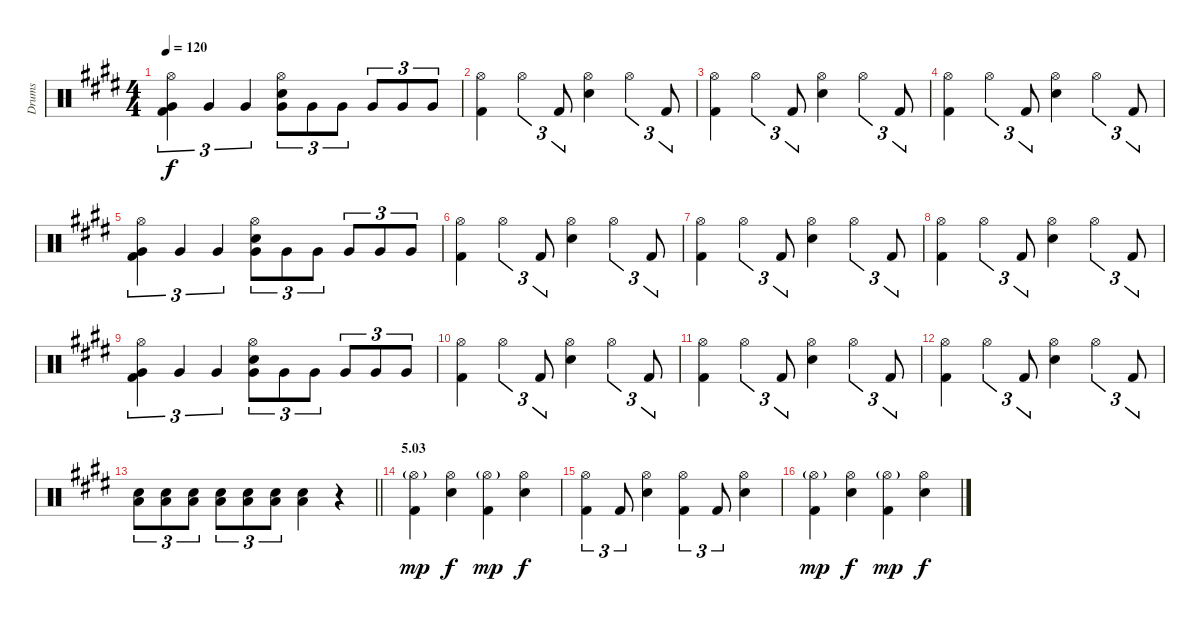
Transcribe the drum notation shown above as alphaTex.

\track ("Drums" "Drums") {instrument percussion}
\staff {score}
\articulation defaults
\ts (4 4)
\tempo 120
\clef neutral
\ks c#minor
("Hi-Hat (open)" "Very Low Tom (hit)" "Kick (hit) 2").4{tu (3 2) dy f} "Very Low Tom (hit)".4{tu (3 2)} "Very Low Tom (hit)".4{tu (3 2)} ("Hi-Hat (open)" "Electric Snare (hit)" "Very Low Tom (hit)").8{tu (3 2)} "Very Low Tom (hit)".8{tu (3 2)} "Very Low Tom (hit)".8{tu (3 2)} "Very Low Tom (hit)".8{tu (3 2)} "Very Low Tom (hit)".8{tu (3 2)} "Very Low Tom (hit)".8{tu (3 2)} |
("Hi-Hat (open)" "Kick (hit) 2").4 "Hi-Hat (open)".4{tu (3 2)} "Kick (hit) 2".8{tu (3 2)} ("Hi-Hat (open)" "Electric Snare (hit)").4 "Hi-Hat (open)".4{tu (3 2)} "Kick (hit) 2".8{tu (3 2)} |
("Hi-Hat (open)" "Kick (hit) 2").4 "Hi-Hat (open)".4{tu (3 2)} "Kick (hit) 2".8{tu (3 2)} ("Hi-Hat (open)" "Electric Snare (hit)").4 "Hi-Hat (open)".4{tu (3 2)} "Kick (hit) 2".8{tu (3 2)} |
("Hi-Hat (open)" "Kick (hit) 2").4 "Hi-Hat (open)".4{tu (3 2)} "Kick (hit) 2".8{tu (3 2)} ("Hi-Hat (open)" "Electric Snare (hit)").4 "Hi-Hat (open)".4{tu (3 2)} "Kick (hit) 2".8{tu (3 2)} |
("Hi-Hat (open)" "Very Low Tom (hit)" "Kick (hit) 2").4{tu (3 2)} "Very Low Tom (hit)".4{tu (3 2)} "Very Low Tom (hit)".4{tu (3 2)} ("Hi-Hat (open)" "Electric Snare (hit)" "Very Low Tom (hit)").8{tu (3 2)} "Very Low Tom (hit)".8{tu (3 2)} "Very Low Tom (hit)".8{tu (3 2)} "Very Low Tom (hit)".8{tu (3 2)} "Very Low Tom (hit)".8{tu (3 2)} "Very Low Tom (hit)".8{tu (3 2)} |
("Hi-Hat (open)" "Kick (hit) 2").4 "Hi-Hat (open)".4{tu (3 2)} "Kick (hit) 2".8{tu (3 2)} ("Hi-Hat (open)" "Electric Snare (hit)").4 "Hi-Hat (open)".4{tu (3 2)} "Kick (hit) 2".8{tu (3 2)} |
("Hi-Hat (open)" "Kick (hit) 2").4 "Hi-Hat (open)".4{tu (3 2)} "Kick (hit) 2".8{tu (3 2)} ("Hi-Hat (open)" "Electric Snare (hit)").4 "Hi-Hat (open)".4{tu (3 2)} "Kick (hit) 2".8{tu (3 2)} |
("Hi-Hat (open)" "Kick (hit) 2").4 "Hi-Hat (open)".4{tu (3 2)} "Kick (hit) 2".8{tu (3 2)} ("Hi-Hat (open)" "Electric Snare (hit)").4 "Hi-Hat (open)".4{tu (3 2)} "Kick (hit) 2".8{tu (3 2)} |
("Hi-Hat (open)" "Very Low Tom (hit)" "Kick (hit) 2").4{tu (3 2)} "Very Low Tom (hit)".4{tu (3 2)} "Very Low Tom (hit)".4{tu (3 2)} ("Hi-Hat (open)" "Electric Snare (hit)" "Very Low Tom (hit)").8{tu (3 2)} "Very Low Tom (hit)".8{tu (3 2)} "Very Low Tom (hit)".8{tu (3 2)} "Very Low Tom (hit)".8{tu (3 2)} "Very Low Tom (hit)".8{tu (3 2)} "Very Low Tom (hit)".8{tu (3 2)} |
("Hi-Hat (open)" "Kick (hit) 2").4 "Hi-Hat (open)".4{tu (3 2)} "Kick (hit) 2".8{tu (3 2)} ("Hi-Hat (open)" "Electric Snare (hit)").4 "Hi-Hat (open)".4{tu (3 2)} "Kick (hit) 2".8{tu (3 2)} |
("Hi-Hat (open)" "Kick (hit) 2").4 "Hi-Hat (open)".4{tu (3 2)} "Kick (hit) 2".8{tu (3 2)} ("Hi-Hat (open)" "Electric Snare (hit)").4 "Hi-Hat (open)".4{tu (3 2)} "Kick (hit) 2".8{tu (3 2)} |
("Hi-Hat (open)" "Kick (hit) 2").4 "Hi-Hat (open)".4{tu (3 2)} "Kick (hit) 2".8{tu (3 2)} ("Hi-Hat (open)" "Electric Snare (hit)").4 "Hi-Hat (open)".4{tu (3 2)} "Kick (hit) 2".8{tu (3 2)} |
\barLineRight lightlight
("Electric Snare (hit)" "Low Tom (hit)").8{tu (3 2)} ("Electric Snare (hit)" "Low Tom (hit)").8{tu (3 2)} ("Electric Snare (hit)" "Low Tom (hit)").8{tu (3 2)} ("Electric Snare (hit)" "Low Tom (hit)").8{tu (3 2)} ("Electric Snare (hit)" "Low Tom (hit)").8{tu (3 2)} ("Electric Snare (hit)" "Low Tom (hit)").8{tu (3 2)} ("Electric Snare (hit)" "Low Tom (hit)").4 r.4 |
\section ("" "5.03")
("Hi-Hat (open)"{g} "Kick (hit) 2").4{dy mp} ("Hi-Hat (open)" "Electric Snare (hit)").4{dy f} ("Hi-Hat (open)"{g} "Kick (hit) 2").4{dy mp} ("Hi-Hat (open)" "Electric Snare (hit)").4{dy f} |
("Hi-Hat (open)" "Kick (hit) 2").4{tu (3 2)} "Kick (hit) 2".8{tu (3 2)} ("Hi-Hat (open)" "Electric Snare (hit)").4 ("Hi-Hat (open)" "Kick (hit) 2").4{tu (3 2)} "Kick (hit) 2".8{tu (3 2)} ("Hi-Hat (open)" "Electric Snare (hit)").4 |
("Hi-Hat (open)"{g} "Kick (hit) 2").4{dy mp} ("Hi-Hat (open)" "Electric Snare (hit)").4{dy f} ("Hi-Hat (open)"{g} "Kick (hit) 2").4{dy mp} ("Hi-Hat (open)" "Electric Snare (hit)").4{dy f}
